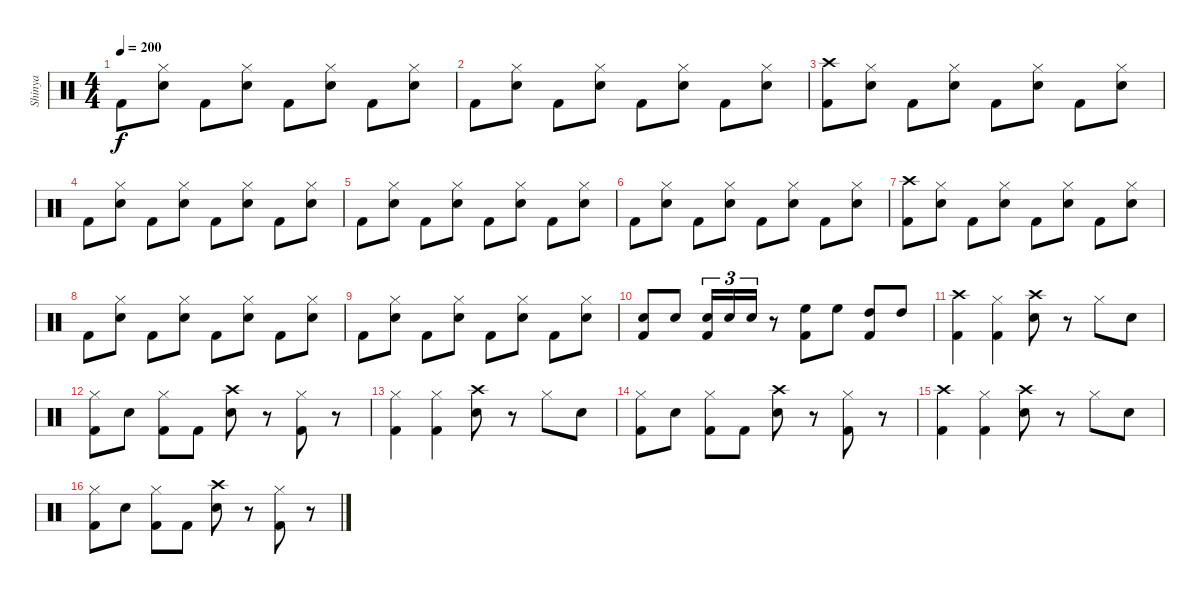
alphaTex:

\track ("Shinya" "Shinya") {instrument percussion}
\staff {score}
\articulation defaults
\ts (4 4)
\tempo 200
\clef neutral
\ks c "Kick (hit) 2".8{dy f}
("Hi-Hat (closed)" "Electric Snare (hit)").8 "Kick (hit) 2".8 ("Hi-Hat (closed)" "Electric Snare (hit)").8 "Kick (hit) 2".8 ("Hi-Hat (closed)" "Electric Snare (hit)").8 "Kick (hit) 2".8 ("Hi-Hat (closed)" "Electric Snare (hit)").8 |
"Kick (hit) 2".8 ("Hi-Hat (closed)" "Electric Snare (hit)").8 "Kick (hit) 2".8 ("Hi-Hat (closed)" "Electric Snare (hit)").8 "Kick (hit) 2".8 ("Hi-Hat (closed)" "Electric Snare (hit)").8 "Kick (hit) 2".8 ("Hi-Hat (closed)" "Electric Snare (hit)").8 |
("Crash high (hit)" "Kick (hit) 2").8 ("Hi-Hat (closed)" "Electric Snare (hit)").8 "Kick (hit) 2".8 ("Hi-Hat (closed)" "Electric Snare (hit)").8 "Kick (hit) 2".8 ("Hi-Hat (closed)" "Electric Snare (hit)").8 "Kick (hit) 2".8 ("Hi-Hat (closed)" "Electric Snare (hit)").8 |
"Kick (hit) 2".8 ("Hi-Hat (closed)" "Electric Snare (hit)").8 "Kick (hit) 2".8 ("Hi-Hat (closed)" "Electric Snare (hit)").8 "Kick (hit) 2".8 ("Hi-Hat (closed)" "Electric Snare (hit)").8 "Kick (hit) 2".8 ("Hi-Hat (closed)" "Electric Snare (hit)").8 |
"Kick (hit) 2".8 ("Hi-Hat (closed)" "Electric Snare (hit)").8 "Kick (hit) 2".8 ("Hi-Hat (closed)" "Electric Snare (hit)").8 "Kick (hit) 2".8 ("Hi-Hat (closed)" "Electric Snare (hit)").8 "Kick (hit) 2".8 ("Hi-Hat (closed)" "Electric Snare (hit)").8 |
"Kick (hit) 2".8 ("Hi-Hat (closed)" "Electric Snare (hit)").8 "Kick (hit) 2".8 ("Hi-Hat (closed)" "Electric Snare (hit)").8 "Kick (hit) 2".8 ("Hi-Hat (closed)" "Electric Snare (hit)").8 "Kick (hit) 2".8 ("Hi-Hat (closed)" "Electric Snare (hit)").8 |
("Crash high (hit)" "Kick (hit) 2").8 ("Hi-Hat (closed)" "Electric Snare (hit)").8 "Kick (hit) 2".8 ("Hi-Hat (closed)" "Electric Snare (hit)").8 "Kick (hit) 2".8 ("Hi-Hat (closed)" "Electric Snare (hit)").8 "Kick (hit) 2".8 ("Hi-Hat (closed)" "Electric Snare (hit)").8 |
"Kick (hit) 2".8 ("Hi-Hat (closed)" "Electric Snare (hit)").8 "Kick (hit) 2".8 ("Hi-Hat (closed)" "Electric Snare (hit)").8 "Kick (hit) 2".8 ("Hi-Hat (closed)" "Electric Snare (hit)").8 "Kick (hit) 2".8 ("Hi-Hat (closed)" "Electric Snare (hit)").8 |
"Kick (hit) 2".8 ("Hi-Hat (closed)" "Electric Snare (hit)").8 "Kick (hit) 2".8 ("Hi-Hat (closed)" "Electric Snare (hit)").8 "Kick (hit) 2".8 ("Hi-Hat (closed)" "Electric Snare (hit)").8 "Kick (hit) 2".8 ("Hi-Hat (closed)" "Electric Snare (hit)").8 |
("Electric Snare (hit)" "Kick (hit) 2").8 "Electric Snare (hit)".8 ("Electric Snare (hit)" "Kick (hit) 2").16{tu (3 2)} "Electric Snare (hit)".16{tu (3 2)} "Electric Snare (hit)".16{tu (3 2)} r.8 ("High Floor Tom (hit)" "Kick (hit) 2").8 "High Floor Tom (hit)".8 ("High Tom (hit)" "Kick (hit) 2").8 "High Tom (hit)".8 |
("Crash high (hit)" "Kick (hit) 2").4 ("Hi-Hat (closed)" "Kick (hit) 2").4 ("Crash high (hit)" "Electric Snare (hit)").8 r.8 "Hi-Hat (closed)".8 "Electric Snare (hit)".8 |
("Hi-Hat (closed)" "Kick (hit) 2").8 "Electric Snare (hit)".8 ("Hi-Hat (closed)" "Kick (hit) 2").8 "Kick (hit) 2".8 ("Crash high (hit)" "Electric Snare (hit)").8 r.8 ("Hi-Hat (closed)" "Kick (hit) 2").8 r.8 |
("Hi-Hat (closed)" "Kick (hit) 2").4 ("Hi-Hat (closed)" "Kick (hit) 2").4 ("Crash high (hit)" "Electric Snare (hit)").8 r.8 "Hi-Hat (closed)".8 "Electric Snare (hit)".8 |
("Hi-Hat (closed)" "Kick (hit) 2").8 "Electric Snare (hit)".8 ("Hi-Hat (closed)" "Kick (hit) 2").8 "Kick (hit) 2".8 ("Crash high (hit)" "Electric Snare (hit)").8 r.8 ("Hi-Hat (closed)" "Kick (hit) 2").8 r.8 |
("Crash high (hit)" "Kick (hit) 2").4 ("Hi-Hat (closed)" "Kick (hit) 2").4 ("Crash high (hit)" "Electric Snare (hit)").8 r.8 "Hi-Hat (closed)".8 "Electric Snare (hit)".8 |
("Hi-Hat (closed)" "Kick (hit) 2").8 "Electric Snare (hit)".8 ("Hi-Hat (closed)" "Kick (hit) 2").8 "Kick (hit) 2".8 ("Crash high (hit)" "Electric Snare (hit)").8 r.8 ("Hi-Hat (closed)" "Kick (hit) 2").8 r.8
